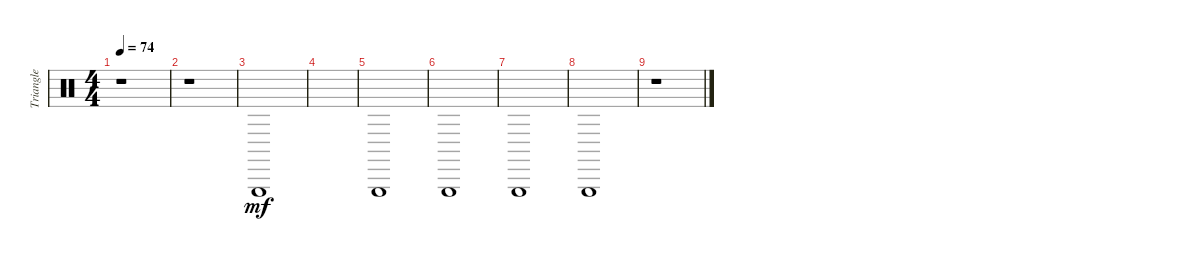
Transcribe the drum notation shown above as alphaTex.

\track ("Triangle" "Triangle") {instrument percussion}
\staff {score}
\articulation defaults
\ts (4 4)
\tempo 74
\clef neutral
\ks c
r.1{dy mf} |
r.1 |
"Triangle (hit)".1 |
|
"Triangle (hit)".1 |
"Triangle (hit)".1 |
"Triangle (hit)".1 |
"Triangle (hit)".1 |
r.1
